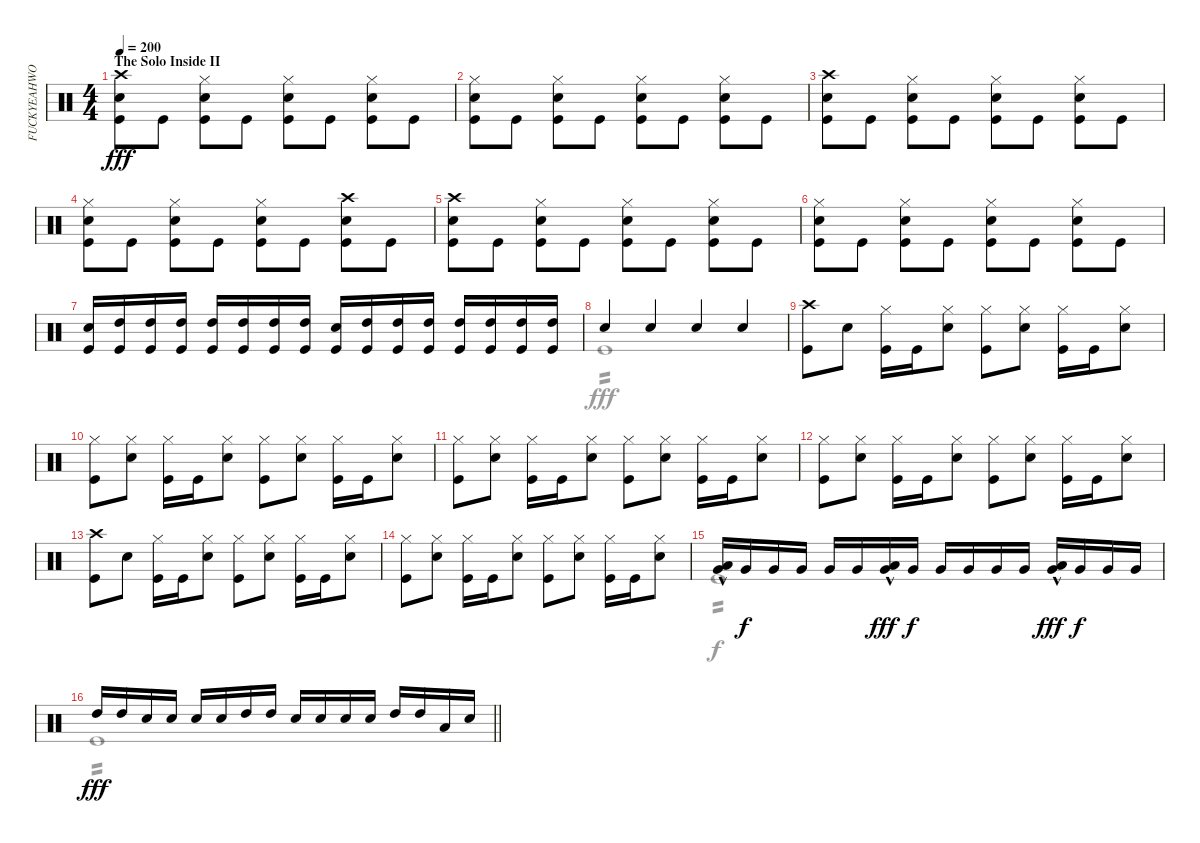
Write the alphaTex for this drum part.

\track ("FUCKYEAHWOOTDAVEMACKINTOSH!(Percussion)" "FUCKYEAHWO") {instrument percussion}
\staff {score}
\articulation defaults
\voice
\ts (4 4)
\section ("" "The Solo Inside II")
\tempo 200
\clef neutral
\ks c
("Crash high (hit)" "Snare (hit) 2" "Kick (hit)").8{dy fff} "Kick (hit)".8 ("Hi-Hat (closed)" "Snare (hit) 2" "Kick (hit)").8 "Kick (hit)".8 ("Snare (hit) 2" "Kick (hit)" "Hi-Hat (closed)").8 "Kick (hit)".8 ("Snare (hit) 2" "Kick (hit)" "Hi-Hat (closed)").8 "Kick (hit)".8 |
("Hi-Hat (closed)" "Snare (hit) 2" "Kick (hit)").8 "Kick (hit)".8 ("Hi-Hat (closed)" "Snare (hit) 2" "Kick (hit)").8 "Kick (hit)".8 ("Snare (hit) 2" "Kick (hit)" "Hi-Hat (closed)").8 "Kick (hit)".8 ("Snare (hit) 2" "Kick (hit)" "Hi-Hat (closed)").8 "Kick (hit)".8 |
("Crash high (hit)" "Snare (hit) 2" "Kick (hit)").8 "Kick (hit)".8 ("Hi-Hat (closed)" "Snare (hit) 2" "Kick (hit)").8 "Kick (hit)".8 ("Snare (hit) 2" "Kick (hit)" "Hi-Hat (closed)").8 "Kick (hit)".8 ("Snare (hit) 2" "Kick (hit)" "Hi-Hat (closed)").8 "Kick (hit)".8 |
("Hi-Hat (closed)" "Snare (hit) 2" "Kick (hit)").8 "Kick (hit)".8 ("Hi-Hat (closed)" "Snare (hit) 2" "Kick (hit)").8 "Kick (hit)".8 ("Snare (hit) 2" "Kick (hit)" "Hi-Hat (closed)").8 "Kick (hit)".8 ("Snare (hit) 2" "Kick (hit)" "Crash high (hit)").8 "Kick (hit)".8 |
("Crash high (hit)" "Snare (hit) 2" "Kick (hit)").8 "Kick (hit)".8 ("Hi-Hat (closed)" "Snare (hit) 2" "Kick (hit)").8 "Kick (hit)".8 ("Snare (hit) 2" "Kick (hit)" "Hi-Hat (closed)").8 "Kick (hit)".8 ("Snare (hit) 2" "Kick (hit)" "Hi-Hat (closed)").8 "Kick (hit)".8 |
("Hi-Hat (closed)" "Snare (hit) 2" "Kick (hit)").8 "Kick (hit)".8 ("Hi-Hat (closed)" "Snare (hit) 2" "Kick (hit)").8 "Kick (hit)".8 ("Snare (hit) 2" "Kick (hit)" "Hi-Hat (closed)").8 "Kick (hit)".8 ("Snare (hit) 2" "Kick (hit)" "Hi-Hat (closed)").8 "Kick (hit)".8 |
("Snare (hit) 2" "Kick (hit)").16 ("High Tom (hit)" "Kick (hit)").16 ("Kick (hit)" "High Tom (hit)").16 ("High Tom (hit)" "Kick (hit)").16 ("High Tom (hit)" "Kick (hit)").16 ("High Tom (hit)" "Kick (hit)").16 ("High Tom (hit)" "Kick (hit)").16 ("High Tom (hit)" "Kick (hit)").16 ("Snare (hit) 2" "Kick (hit)").16 ("High Tom (hit)" "Kick (hit)").16 ("High Tom (hit)" "Kick (hit)").16 ("High Tom (hit)" "Kick (hit)").16 ("High Tom (hit)" "Kick (hit)").16 ("High Tom (hit)" "Kick (hit)").16 ("High Tom (hit)" "Kick (hit)").16 ("High Tom (hit)" "Kick (hit)").16 |
"Snare (hit) 2".4 "Snare (hit) 2".4 "Snare (hit) 2".4 "Snare (hit) 2".4 |
("Kick (hit)" "Crash high (hit)").8 "Snare (hit) 2".8 ("Kick (hit)" "Hi-Hat (closed)").16 "Kick (hit)".16 ("Snare (hit) 2" "Hi-Hat (closed)").8 ("Kick (hit)" "Hi-Hat (closed)").8 ("Snare (hit) 2" "Hi-Hat (closed)").8 ("Kick (hit)" "Hi-Hat (closed)").16 "Kick (hit)".16 ("Snare (hit) 2" "Hi-Hat (closed)").8 |
("Kick (hit)" "Hi-Hat (closed)").8 ("Snare (hit) 2" "Hi-Hat (closed)").8 ("Kick (hit)" "Hi-Hat (closed)").16 "Kick (hit)".16 ("Snare (hit) 2" "Hi-Hat (closed)").8 ("Kick (hit)" "Hi-Hat (closed)").8 ("Snare (hit) 2" "Hi-Hat (closed)").8 ("Kick (hit)" "Hi-Hat (closed)").16 "Kick (hit)".16 ("Snare (hit) 2" "Hi-Hat (closed)").8 |
("Kick (hit)" "Hi-Hat (closed)").8 ("Snare (hit) 2" "Hi-Hat (closed)").8 ("Kick (hit)" "Hi-Hat (closed)").16 "Kick (hit)".16 ("Snare (hit) 2" "Hi-Hat (closed)").8 ("Kick (hit)" "Hi-Hat (closed)").8 ("Snare (hit) 2" "Hi-Hat (closed)").8 ("Kick (hit)" "Hi-Hat (closed)").16 "Kick (hit)".16 ("Snare (hit) 2" "Hi-Hat (closed)").8 |
("Kick (hit)" "Hi-Hat (closed)").8 ("Snare (hit) 2" "Hi-Hat (closed)").8 ("Kick (hit)" "Hi-Hat (closed)").16 "Kick (hit)".16 ("Snare (hit) 2" "Hi-Hat (closed)").8 ("Kick (hit)" "Hi-Hat (closed)").8 ("Snare (hit) 2" "Hi-Hat (closed)").8 ("Kick (hit)" "Hi-Hat (closed)").16 "Kick (hit)".16 ("Snare (hit) 2" "Hi-Hat (closed)").8 |
("Kick (hit)" "Crash high (hit)").8 "Snare (hit) 2".8 ("Kick (hit)" "Hi-Hat (closed)").16 "Kick (hit)".16 ("Snare (hit) 2" "Hi-Hat (closed)").8 ("Kick (hit)" "Hi-Hat (closed)").8 ("Snare (hit) 2" "Hi-Hat (closed)").8 ("Kick (hit)" "Hi-Hat (closed)").16 "Kick (hit)".16 ("Snare (hit) 2" "Hi-Hat (closed)").8 |
("Kick (hit)" "Hi-Hat (closed)").8 ("Snare (hit) 2" "Hi-Hat (closed)").8 ("Kick (hit)" "Hi-Hat (closed)").16 "Kick (hit)".16 ("Snare (hit) 2" "Hi-Hat (closed)").8 ("Kick (hit)" "Hi-Hat (closed)").8 ("Snare (hit) 2" "Hi-Hat (closed)").8 ("Kick (hit)" "Hi-Hat (closed)").16 "Kick (hit)".16 ("Snare (hit) 2" "Hi-Hat (closed)").8 |
("Low Tom (hit)" "Very Low Tom (hit)"{hac}).16 "Very Low Tom (hit)".16{dy f} "Very Low Tom (hit)".16 "Very Low Tom (hit)".16 "Very Low Tom (hit)".16 "Very Low Tom (hit)".16 ("Very Low Tom (hit)"{hac} "Low Tom (hit)").16{dy fff} "Very Low Tom (hit)".16{dy f} "Very Low Tom (hit)".16 "Very Low Tom (hit)".16 "Very Low Tom (hit)".16 "Very Low Tom (hit)".16 ("Very Low Tom (hit)"{hac} "Low Tom (hit)").16{dy fff} "Very Low Tom (hit)".16{dy f} "Very Low Tom (hit)".16 "Very Low Tom (hit)".16 |
\barLineRight lightlight "High Tom (hit)".16{dy fff} "High Tom (hit)".16 "Snare (hit) 2".16 "Snare (hit) 2".16 "Snare (hit) 2".16 "Snare (hit) 2".16 "High Tom (hit)".16 "High Tom (hit)".16 "Snare (hit) 2".16 "Snare (hit) 2".16 "Snare (hit) 2".16 "Snare (hit) 2".16 "High Tom (hit)".16 "High Tom (hit)".16 "Low Tom (hit)".16 "Snare (hit) 2".16
\voice
\clef neutral
\ottava regular
\simile none
\ks c
|
|
|
|
|
|
|
"Kick (hit)".1{tp 2} |
|
|
|
|
|
|
"Kick (hit)".1{tp 2 dy f} |
\barLineRight lightlight "Kick (hit)".1{tp 2 dy fff}
